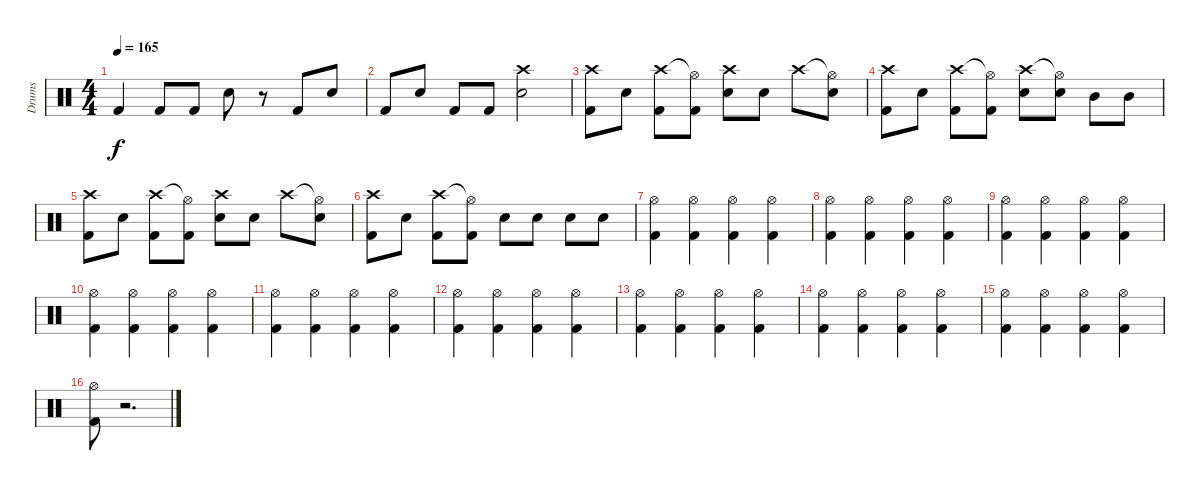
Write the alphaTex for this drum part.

\track ("Drums" "Drums") {instrument percussion}
\staff {score}
\articulation defaults
\ts (4 4)
\tempo 165
\clef neutral
\ks c "Kick (hit) 2".4{dy f} "Kick (hit) 2".8 "Kick (hit) 2".8 "Snare (hit) 2".8
r.8 "Kick (hit) 2".8 "Snare (hit) 2".8 |
"Kick (hit) 2".8 "Snare (hit) 2".8 "Kick (hit) 2".8 "Kick (hit) 2".8 ("Crash high (hit)" "Snare (hit) 2").2 |
("Crash high (hit)" "Kick (hit) 2").8 "Snare (hit) 2".8 ("Crash high (hit)" "Kick (hit) 2").8 ("Hi-Hat (open)"{t} "Kick (hit) 2").8 ("Crash high (hit)" "Snare (hit) 2").8 "Snare (hit) 2".8 "Crash high (hit)".8 ("Hi-Hat (open)"{t} "Snare (hit) 2").8 |
("Crash high (hit)" "Kick (hit) 2").8 "Snare (hit) 2".8 ("Crash high (hit)" "Kick (hit) 2").8 ("Hi-Hat (open)"{t} "Kick (hit) 2").8 ("Crash high (hit)" "Snare (hit) 2").8 ("Hi-Hat (open)"{t} "Snare (hit) 2").8 "Mid Tom (hit)".8 "Mid Tom (hit)".8 |
("Crash high (hit)" "Kick (hit) 2").8 "Snare (hit) 2".8 ("Crash high (hit)" "Kick (hit) 2").8 ("Hi-Hat (open)"{t} "Kick (hit) 2").8 ("Crash high (hit)" "Snare (hit) 2").8 "Snare (hit) 2".8 "Crash high (hit)".8 ("Hi-Hat (open)"{t} "Snare (hit) 2").8 |
("Crash high (hit)" "Kick (hit) 2").8 "Snare (hit) 2".8 ("Crash high (hit)" "Kick (hit) 2").8 ("Hi-Hat (open)"{t} "Kick (hit) 2").8 "Snare (hit) 2".8 "Snare (hit) 2".8 "Snare (hit) 2".8 "Snare (hit) 2".8 |
("Hi-Hat (open)" "Kick (hit) 2").4 ("Hi-Hat (open)" "Kick (hit) 2").4 ("Hi-Hat (open)" "Kick (hit) 2").4 ("Hi-Hat (open)" "Kick (hit) 2").4 |
("Hi-Hat (open)" "Kick (hit) 2").4 ("Hi-Hat (open)" "Kick (hit) 2").4 ("Hi-Hat (open)" "Kick (hit) 2").4 ("Hi-Hat (open)" "Kick (hit) 2").4 |
("Hi-Hat (open)" "Kick (hit) 2").4 ("Hi-Hat (open)" "Kick (hit) 2").4 ("Hi-Hat (open)" "Kick (hit) 2").4 ("Hi-Hat (open)" "Kick (hit) 2").4 |
("Hi-Hat (open)" "Kick (hit) 2").4 ("Hi-Hat (open)" "Kick (hit) 2").4 ("Hi-Hat (open)" "Kick (hit) 2").4 ("Hi-Hat (open)" "Kick (hit) 2").4 |
("Hi-Hat (open)" "Kick (hit) 2").4 ("Hi-Hat (open)" "Kick (hit) 2").4 ("Hi-Hat (open)" "Kick (hit) 2").4 ("Hi-Hat (open)" "Kick (hit) 2").4 |
("Hi-Hat (open)" "Kick (hit) 2").4 ("Hi-Hat (open)" "Kick (hit) 2").4 ("Hi-Hat (open)" "Kick (hit) 2").4 ("Hi-Hat (open)" "Kick (hit) 2").4 |
("Hi-Hat (open)" "Kick (hit) 2").4 ("Hi-Hat (open)" "Kick (hit) 2").4 ("Hi-Hat (open)" "Kick (hit) 2").4 ("Hi-Hat (open)" "Kick (hit) 2").4 |
("Hi-Hat (open)" "Kick (hit) 2").4 ("Hi-Hat (open)" "Kick (hit) 2").4 ("Hi-Hat (open)" "Kick (hit) 2").4 ("Hi-Hat (open)" "Kick (hit) 2").4 |
("Hi-Hat (open)" "Kick (hit) 2").4 ("Hi-Hat (open)" "Kick (hit) 2").4 ("Hi-Hat (open)" "Kick (hit) 2").4 ("Hi-Hat (open)" "Kick (hit) 2").4 |
("Hi-Hat (open)" "Kick (hit) 2").8 r.2{d}
